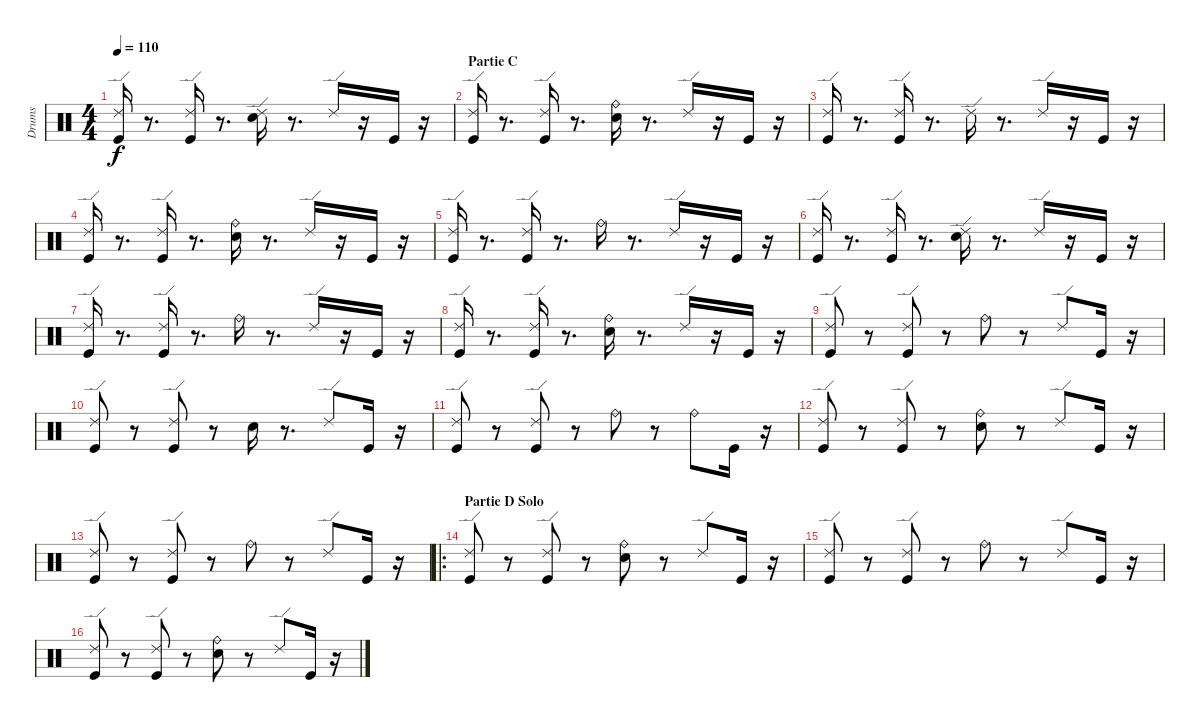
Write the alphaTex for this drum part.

\track ("Drums" "Drums") {instrument percussion}
\staff {score}
\articulation defaults
\ts (4 4)
\tempo 110
\clef neutral
\ks c
("Ride (edge) 2" "Kick (hit)").16{dy f} r.8{d} ("Ride (edge) 2" "Kick (hit)").16 r.8{d} ("Ride (edge) 2" "Snare (hit) 2").16 r.8{d} "Ride (edge) 2".16 r.16 "Kick (hit)".16 r.16 |
\section ("" "Partie C")
("Ride (edge) 2" "Kick (hit)").16 r.8{d} ("Ride (edge) 2" "Kick (hit)").16 r.8{d} ("Ride (bell)" "Snare (hit) 2").16 r.8{d} "Ride (edge) 2".16 r.16 "Kick (hit)".16 r.16 |
("Ride (edge) 2" "Kick (hit)").16 r.8{d} ("Ride (edge) 2" "Kick (hit)").16 r.8{d} "Ride (edge) 2".16 r.8{d} "Ride (edge) 2".16 r.16 "Kick (hit)".16 r.16 |
("Ride (edge) 2" "Kick (hit)").16 r.8{d} ("Ride (edge) 2" "Kick (hit)").16 r.8{d} ("Ride (bell)" "Snare (hit) 2").16 r.8{d} "Ride (edge) 2".16 r.16 "Kick (hit)".16 r.16 |
("Ride (edge) 2" "Kick (hit)").16 r.8{d} ("Ride (edge) 2" "Kick (hit)").16 r.8{d} "Ride (bell)".16 r.8{d} "Ride (edge) 2".16 r.16 "Kick (hit)".16 r.16 |
("Ride (edge) 2" "Kick (hit)").16 r.8{d} ("Ride (edge) 2" "Kick (hit)").16 r.8{d} ("Ride (edge) 2" "Snare (hit) 2").16 r.8{d} "Ride (edge) 2".16 r.16 "Kick (hit)".16 r.16 |
("Ride (edge) 2" "Kick (hit)").16 r.8{d} ("Ride (edge) 2" "Kick (hit)").16 r.8{d} "Ride (bell)".16 r.8{d} "Ride (edge) 2".16 r.16 "Kick (hit)".16 r.16 |
("Ride (edge) 2" "Kick (hit)").16 r.8{d} ("Ride (edge) 2" "Kick (hit)").16 r.8{d} ("Electric Snare (hit)" "Ride (bell)").16 r.8{d} "Ride (edge) 2".16 r.16 "Kick (hit)".16 r.16 |
("Ride (edge) 2" "Kick (hit)").8 r.8 ("Ride (edge) 2" "Kick (hit)").8 r.8 "Ride (bell)".8 r.8 "Ride (edge) 2".8 "Kick (hit)".16 r.16 |
("Ride (edge) 2" "Kick (hit)").8 r.8 ("Ride (edge) 2" "Kick (hit)").8 r.8 "Snare (hit) 2".16 r.8{d} "Ride (edge) 2".8 "Kick (hit)".16 r.16 |
("Ride (edge) 2" "Kick (hit)").8 r.8 ("Ride (edge) 2" "Kick (hit)").8 r.8 "Ride (bell)".8 r.8 "Ride (bell)".8 "Kick (hit)".16 r.16 |
("Ride (edge) 2" "Kick (hit)").8 r.8 ("Ride (edge) 2" "Kick (hit)").8 r.8 ("Ride (bell)" "Electric Snare (hit)").8 r.8 "Ride (edge) 2".8 "Kick (hit)".16 r.16 |
("Ride (edge) 2" "Kick (hit)").8 r.8 ("Ride (edge) 2" "Kick (hit)").8 r.8 "Ride (bell)".8 r.8 "Ride (edge) 2".8 "Kick (hit)".16 r.16 |
\ro
\section ("" "Partie D Solo")
("Ride (edge) 2" "Kick (hit)").8 r.8 ("Ride (edge) 2" "Kick (hit)").8 r.8 ("Ride (bell)" "Electric Snare (hit)").8 r.8 "Ride (edge) 2".8 "Kick (hit)".16 r.16 |
("Ride (edge) 2" "Kick (hit)").8 r.8 ("Ride (edge) 2" "Kick (hit)").8 r.8 "Ride (bell)".8 r.8 "Ride (edge) 2".8 "Kick (hit)".16 r.16 |
("Ride (edge) 2" "Kick (hit)").8 r.8 ("Ride (edge) 2" "Kick (hit)").8 r.8 ("Ride (bell)" "Electric Snare (hit)").8 r.8 "Ride (edge) 2".8 "Kick (hit)".16 r.16
